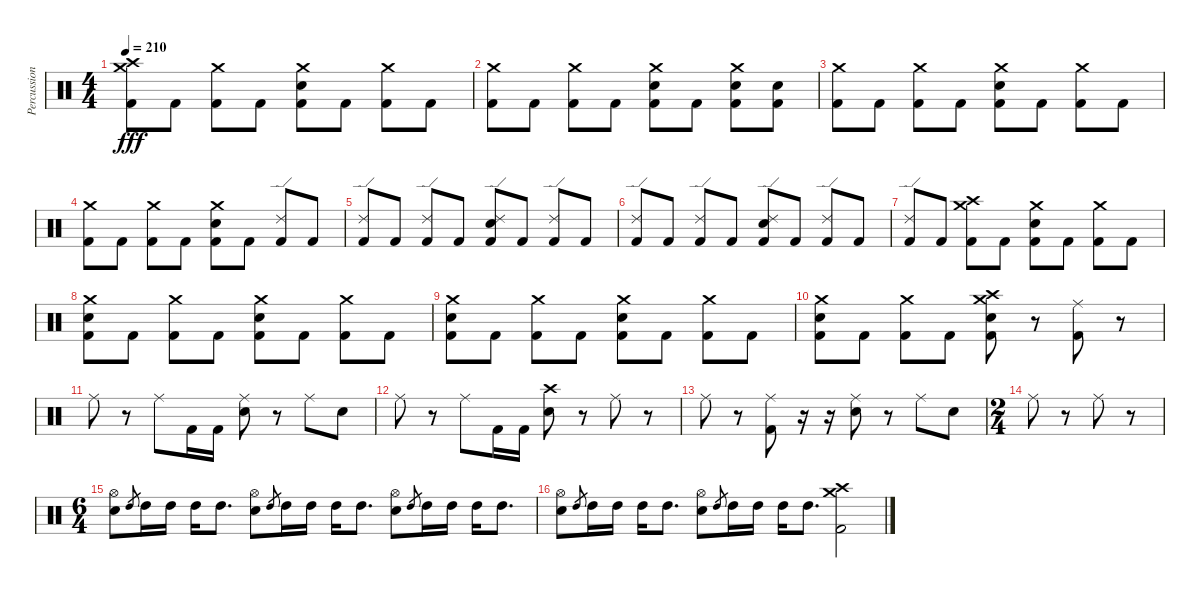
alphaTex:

\track ("Percussion" "Percussion") {instrument percussion}
\staff {score}
\articulation defaults
\ts (4 4)
\tempo 210
\clef neutral
\ks c
("Crash medium (hit)" "Crash high (hit)" "Kick (hit) 2").8{dy fff} "Kick (hit) 2".8 ("Crash medium (hit)" "Kick (hit) 2").8 "Kick (hit) 2".8 ("Crash medium (hit)" "Electric Snare (hit)" "Kick (hit) 2").8 "Kick (hit) 2".8 ("Crash medium (hit)" "Kick (hit) 2").8 "Kick (hit) 2".8 |
("Crash medium (hit)" "Kick (hit) 2").8 "Kick (hit) 2".8 ("Crash medium (hit)" "Kick (hit) 2").8 "Kick (hit) 2".8 ("Crash medium (hit)" "Electric Snare (hit)" "Kick (hit) 2").8 "Kick (hit) 2".8 ("Crash medium (hit)" "Electric Snare (hit)" "Kick (hit) 2").8 ("Electric Snare (hit)" "Kick (hit) 2").8 |
("Crash medium (hit)" "Kick (hit) 2").8 "Kick (hit) 2".8 ("Crash medium (hit)" "Kick (hit) 2").8 "Kick (hit) 2".8 ("Crash medium (hit)" "Electric Snare (hit)" "Kick (hit) 2").8 "Kick (hit) 2".8 ("Crash medium (hit)" "Kick (hit) 2").8 "Kick (hit) 2".8 |
("Crash medium (hit)" "Kick (hit) 2").8 "Kick (hit) 2".8 ("Crash medium (hit)" "Kick (hit) 2").8 "Kick (hit) 2".8 ("Crash medium (hit)" "Electric Snare (hit)" "Kick (hit) 2").8 "Kick (hit) 2".8 ("Ride (edge) 2" "Kick (hit) 2").8 "Kick (hit) 2".8 |
("Ride (edge) 2" "Kick (hit) 2").8 "Kick (hit) 2".8 ("Ride (edge) 2" "Kick (hit) 2").8 "Kick (hit) 2".8 ("Ride (edge) 2" "Electric Snare (hit)" "Kick (hit) 2").8 "Kick (hit) 2".8 ("Ride (edge) 2" "Kick (hit) 2").8 "Kick (hit) 2".8 |
("Ride (edge) 2" "Kick (hit) 2").8 "Kick (hit) 2".8 ("Ride (edge) 2" "Kick (hit) 2").8 "Kick (hit) 2".8 ("Ride (edge) 2" "Electric Snare (hit)" "Kick (hit) 2").8 "Kick (hit) 2".8 ("Ride (edge) 2" "Kick (hit) 2").8 "Kick (hit) 2".8 |
("Ride (edge) 2" "Kick (hit) 2").8 "Kick (hit) 2".8 ("Crash high (hit)" "Crash medium (hit)" "Kick (hit) 2").8 "Kick (hit) 2".8 ("Crash medium (hit)" "Electric Snare (hit)" "Kick (hit) 2").8 "Kick (hit) 2".8 ("Crash medium (hit)" "Kick (hit) 2").8 "Kick (hit) 2".8 |
("Crash medium (hit)" "Electric Snare (hit)" "Kick (hit) 2").8 "Kick (hit) 2".8 ("Crash medium (hit)" "Kick (hit) 2").8 "Kick (hit) 2".8 ("Crash medium (hit)" "Electric Snare (hit)" "Kick (hit) 2").8 "Kick (hit) 2".8 ("Crash medium (hit)" "Kick (hit) 2").8 "Kick (hit) 2".8 |
("Crash medium (hit)" "Electric Snare (hit)" "Kick (hit) 2").8 "Kick (hit) 2".8 ("Crash medium (hit)" "Kick (hit) 2").8 "Kick (hit) 2".8 ("Crash medium (hit)" "Electric Snare (hit)" "Kick (hit) 2").8 "Kick (hit) 2".8 ("Crash medium (hit)" "Kick (hit) 2").8 "Kick (hit) 2".8 |
("Crash medium (hit)" "Electric Snare (hit)" "Kick (hit) 2").8 "Kick (hit) 2".8 ("Crash medium (hit)" "Kick (hit) 2").8 "Kick (hit) 2".8 ("Crash medium (hit)" "Crash high (hit)" "Electric Snare (hit)" "Kick (hit) 2").8 r.8 ("Ride (middle)" "Kick (hit) 2").8 r.8 |
"Ride (middle)".8 r.8 "Ride (middle)".8 "Kick (hit) 2".16 "Kick (hit) 2".16 ("Ride (middle)" "Electric Snare (hit)").8 r.8 "Ride (middle)".8 "Electric Snare (hit)".8 |
"Ride (middle)".8 r.8 "Ride (middle)".8 "Kick (hit) 2".16 "Kick (hit) 2".16 ("Crash high (hit)" "Electric Snare (hit)").8 r.8 "Ride (middle)".8 r.8 |
"Ride (middle)".8 r.8 ("Ride (middle)" "Kick (hit) 2").8 r.16 r.16 ("Ride (middle)" "Electric Snare (hit)").8 r.8 "Ride (middle)".8 "Electric Snare (hit)".8 |
\ts (2 4)
"Ride (middle)".8 r.8 "Ride (middle)".8 r.8 |
\ts (6 4)
("Hi-Hat (open)" "Electric Snare (hit)").8 "High Tom (hit)".8{gr} "High Tom (hit)".16 "High Tom (hit)".16 "High Tom (hit)".16 "High Tom (hit)".8{d} ("Hi-Hat (open)" "Electric Snare (hit)").8 "High Tom (hit)".8{gr} "High Tom (hit)".16 "High Tom (hit)".16 "High Tom (hit)".16 "High Tom (hit)".8{d} ("Hi-Hat (open)" "Electric Snare (hit)").8 "High Tom (hit)".8{gr} "High Tom (hit)".16 "High Tom (hit)".16 "High Tom (hit)".16 "High Tom (hit)".8{d} |
("Hi-Hat (open)" "Electric Snare (hit)").8 "High Tom (hit)".8{gr} "High Tom (hit)".16 "High Tom (hit)".16 "High Tom (hit)".16 "High Tom (hit)".8{d} ("Hi-Hat (open)" "Electric Snare (hit)").8 "High Tom (hit)".8{gr} "High Tom (hit)".16 "High Tom (hit)".16 "High Tom (hit)".16 "High Tom (hit)".8{d} ("Crash high (hit)" "Crash medium (hit)" "Kick (hit) 2").2
